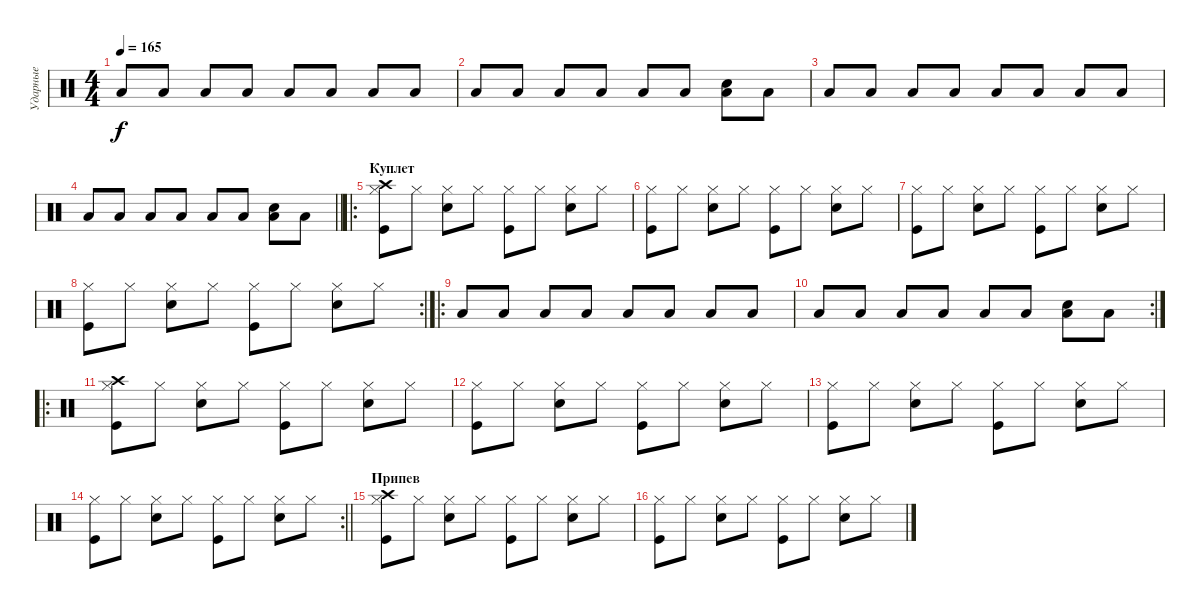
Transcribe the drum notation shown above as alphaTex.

\track ("Ударные" "Ударные") {instrument percussion}
\staff {score}
\articulation defaults
\ts (4 4)
\tempo 165
\clef neutral
\ks c "Low Floor Tom (hit)".8{dy f} "Low Floor Tom (hit)".8 "Low Floor Tom (hit)".8 "Low Floor Tom (hit)".8 "Low Floor Tom (hit)".8 "Low Floor Tom (hit)".8 "Low Floor Tom (hit)".8 "Low Floor Tom (hit)".8
|
"Low Floor Tom (hit)".8 "Low Floor Tom (hit)".8 "Low Floor Tom (hit)".8 "Low Floor Tom (hit)".8 "Low Floor Tom (hit)".8 "Low Floor Tom (hit)".8 ("Snare (hit) 2" "Low Floor Tom (hit)").8 "Low Floor Tom (hit)".8 |
"Low Floor Tom (hit)".8 "Low Floor Tom (hit)".8 "Low Floor Tom (hit)".8 "Low Floor Tom (hit)".8 "Low Floor Tom (hit)".8 "Low Floor Tom (hit)".8 "Low Floor Tom (hit)".8 "Low Floor Tom (hit)".8 |
\barLineRight lightlight "Low Floor Tom (hit)".8 "Low Floor Tom (hit)".8 "Low Floor Tom (hit)".8 "Low Floor Tom (hit)".8 "Low Floor Tom (hit)".8 "Low Floor Tom (hit)".8
("Snare (hit) 2" "Low Floor Tom (hit)").8 "Low Floor Tom (hit)".8 |
\ro
\section ("" "Куплет")
("Kick (hit)" "Hi-Hat (closed)" "Crash high (hit)").8 "Hi-Hat (closed)".8 ("Snare (hit) 2" "Hi-Hat (closed)").8 "Hi-Hat (closed)".8 ("Kick (hit)" "Hi-Hat (closed)").8 "Hi-Hat (closed)".8 ("Snare (hit) 2" "Hi-Hat (closed)").8 "Hi-Hat (closed)".8 |
("Kick (hit)" "Hi-Hat (closed)").8 "Hi-Hat (closed)".8 ("Snare (hit) 2" "Hi-Hat (closed)").8 "Hi-Hat (closed)".8 ("Kick (hit)" "Hi-Hat (closed)").8 "Hi-Hat (closed)".8 ("Snare (hit) 2" "Hi-Hat (closed)").8 "Hi-Hat (closed)".8 |
("Kick (hit)" "Hi-Hat (closed)").8 "Hi-Hat (closed)".8 ("Snare (hit) 2" "Hi-Hat (closed)").8 "Hi-Hat (closed)".8 ("Kick (hit)" "Hi-Hat (closed)").8 "Hi-Hat (closed)".8 ("Snare (hit) 2" "Hi-Hat (closed)").8 "Hi-Hat (closed)".8 |
\rc 2
("Kick (hit)" "Hi-Hat (closed)").8 "Hi-Hat (closed)".8 ("Snare (hit) 2" "Hi-Hat (closed)").8 "Hi-Hat (closed)".8 ("Kick (hit)" "Hi-Hat (closed)").8 "Hi-Hat (closed)".8 ("Snare (hit) 2" "Hi-Hat (closed)").8 "Hi-Hat (closed)".8 |
\ro "Low Floor Tom (hit)".8 "Low Floor Tom (hit)".8 "Low Floor Tom (hit)".8 "Low Floor Tom (hit)".8 "Low Floor Tom (hit)".8 "Low Floor Tom (hit)".8 "Low Floor Tom (hit)".8 "Low Floor Tom (hit)".8
|
\rc 2 "Low Floor Tom (hit)".8 "Low Floor Tom (hit)".8 "Low Floor Tom (hit)".8 "Low Floor Tom (hit)".8 "Low Floor Tom (hit)".8 "Low Floor Tom (hit)".8
("Snare (hit) 2" "Low Floor Tom (hit)").8 "Low Floor Tom (hit)".8 |
\ro
("Kick (hit)" "Hi-Hat (closed)" "Crash high (hit)").8 "Hi-Hat (closed)".8 ("Snare (hit) 2" "Hi-Hat (closed)").8 "Hi-Hat (closed)".8 ("Kick (hit)" "Hi-Hat (closed)").8 "Hi-Hat (closed)".8 ("Snare (hit) 2" "Hi-Hat (closed)").8 "Hi-Hat (closed)".8 |
("Kick (hit)" "Hi-Hat (closed)").8 "Hi-Hat (closed)".8 ("Snare (hit) 2" "Hi-Hat (closed)").8 "Hi-Hat (closed)".8 ("Kick (hit)" "Hi-Hat (closed)").8 "Hi-Hat (closed)".8 ("Snare (hit) 2" "Hi-Hat (closed)").8 "Hi-Hat (closed)".8 |
("Kick (hit)" "Hi-Hat (closed)").8 "Hi-Hat (closed)".8 ("Snare (hit) 2" "Hi-Hat (closed)").8 "Hi-Hat (closed)".8 ("Kick (hit)" "Hi-Hat (closed)").8 "Hi-Hat (closed)".8 ("Snare (hit) 2" "Hi-Hat (closed)").8 "Hi-Hat (closed)".8 |
\rc 2
\barLineRight lightlight
("Kick (hit)" "Hi-Hat (closed)").8 "Hi-Hat (closed)".8 ("Snare (hit) 2" "Hi-Hat (closed)").8 "Hi-Hat (closed)".8 ("Kick (hit)" "Hi-Hat (closed)").8 "Hi-Hat (closed)".8 ("Snare (hit) 2" "Hi-Hat (closed)").8 "Hi-Hat (closed)".8 |
\section ("" "Припев")
("Kick (hit)" "Hi-Hat (closed)" "Crash high (hit)").8 "Hi-Hat (closed)".8 ("Snare (hit) 2" "Hi-Hat (closed)").8 "Hi-Hat (closed)".8 ("Kick (hit)" "Hi-Hat (closed)").8 "Hi-Hat (closed)".8 ("Snare (hit) 2" "Hi-Hat (closed)").8 "Hi-Hat (closed)".8 |
("Kick (hit)" "Hi-Hat (closed)").8 "Hi-Hat (closed)".8 ("Snare (hit) 2" "Hi-Hat (closed)").8 "Hi-Hat (closed)".8 ("Kick (hit)" "Hi-Hat (closed)").8 "Hi-Hat (closed)".8 ("Snare (hit) 2" "Hi-Hat (closed)").8 "Hi-Hat (closed)".8
